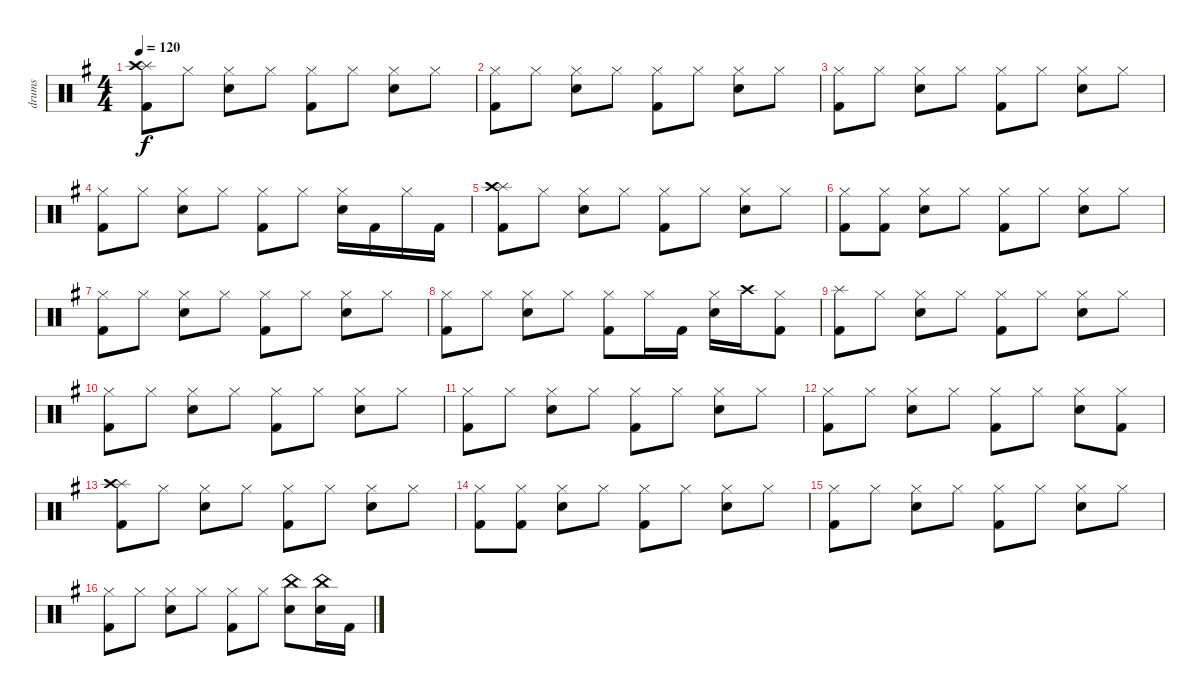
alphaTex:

\track ("drums" "drums") {instrument percussion}
\staff {score}
\articulation defaults
\ts (4 4)
\tempo 120
\clef neutral
\ks eminor
("Kick (hit) 2" "Splash (hit)" "Crash high (hit)").8{dy f} "Hi-Hat (closed)".8 ("Electric Snare (hit)" "Hi-Hat (closed)").8 "Hi-Hat (closed)".8 ("Kick (hit) 2" "Hi-Hat (closed)").8 "Hi-Hat (closed)".8 ("Electric Snare (hit)" "Hi-Hat (closed)").8 "Hi-Hat (closed)".8 |
("Kick (hit) 2" "Hi-Hat (closed)").8 "Hi-Hat (closed)".8 ("Electric Snare (hit)" "Hi-Hat (closed)").8 "Hi-Hat (closed)".8 ("Kick (hit) 2" "Hi-Hat (closed)").8 "Hi-Hat (closed)".8 ("Electric Snare (hit)" "Hi-Hat (closed)").8 "Hi-Hat (closed)".8 |
("Kick (hit) 2" "Hi-Hat (closed)").8 "Hi-Hat (closed)".8 ("Electric Snare (hit)" "Hi-Hat (closed)").8 "Hi-Hat (closed)".8 ("Kick (hit) 2" "Hi-Hat (closed)").8 "Hi-Hat (closed)".8 ("Electric Snare (hit)" "Hi-Hat (closed)").8 "Hi-Hat (closed)".8 |
("Kick (hit) 2" "Hi-Hat (closed)").8 "Hi-Hat (closed)".8 ("Electric Snare (hit)" "Hi-Hat (closed)").8 "Hi-Hat (closed)".8 ("Kick (hit) 2" "Hi-Hat (closed)").8 "Hi-Hat (closed)".8 ("Electric Snare (hit)" "Hi-Hat (closed)").16 "Kick (hit) 2".16 "Hi-Hat (closed)".16 "Kick (hit) 2".16 |
("Kick (hit) 2" "Splash (hit)" "Crash high (hit)").8 "Hi-Hat (closed)".8 ("Electric Snare (hit)" "Hi-Hat (closed)").8 "Hi-Hat (closed)".8 ("Kick (hit) 2" "Hi-Hat (closed)").8 "Hi-Hat (closed)".8 ("Electric Snare (hit)" "Hi-Hat (closed)").8 "Hi-Hat (closed)".8 |
("Kick (hit) 2" "Hi-Hat (closed)").8 ("Kick (hit) 2" "Hi-Hat (closed)").8 ("Electric Snare (hit)" "Hi-Hat (closed)").8 "Hi-Hat (closed)".8 ("Kick (hit) 2" "Hi-Hat (closed)").8 "Hi-Hat (closed)".8 ("Electric Snare (hit)" "Hi-Hat (closed)").8 "Hi-Hat (closed)".8 |
("Kick (hit) 2" "Hi-Hat (closed)").8 "Hi-Hat (closed)".8 ("Electric Snare (hit)" "Hi-Hat (closed)").8 "Hi-Hat (closed)".8 ("Kick (hit) 2" "Hi-Hat (closed)").8 "Hi-Hat (closed)".8 ("Electric Snare (hit)" "Hi-Hat (closed)").8 "Hi-Hat (closed)".8 |
("Kick (hit) 2" "Hi-Hat (closed)").8 "Hi-Hat (closed)".8 ("Electric Snare (hit)" "Hi-Hat (closed)").8 "Hi-Hat (closed)".8 ("Kick (hit) 2" "Hi-Hat (closed)").8 "Hi-Hat (closed)".16 "Kick (hit) 2".16 ("Electric Snare (hit)" "Hi-Hat (closed)").16 "Crash high (hit)".16 ("Kick (hit) 2" "Hi-Hat (closed)").8 |
("Kick (hit) 2" "Splash (hit)").8 "Hi-Hat (closed)".8 ("Electric Snare (hit)" "Hi-Hat (closed)").8 "Hi-Hat (closed)".8 ("Kick (hit) 2" "Hi-Hat (closed)").8 "Hi-Hat (closed)".8 ("Electric Snare (hit)" "Hi-Hat (closed)").8 "Hi-Hat (closed)".8 |
("Kick (hit) 2" "Hi-Hat (closed)").8 "Hi-Hat (closed)".8 ("Electric Snare (hit)" "Hi-Hat (closed)").8 "Hi-Hat (closed)".8 ("Kick (hit) 2" "Hi-Hat (closed)").8 "Hi-Hat (closed)".8 ("Electric Snare (hit)" "Hi-Hat (closed)").8 "Hi-Hat (closed)".8 |
("Kick (hit) 2" "Hi-Hat (closed)").8 "Hi-Hat (closed)".8 ("Electric Snare (hit)" "Hi-Hat (closed)").8 "Hi-Hat (closed)".8 ("Kick (hit) 2" "Hi-Hat (closed)").8 "Hi-Hat (closed)".8 ("Electric Snare (hit)" "Hi-Hat (closed)").8 "Hi-Hat (closed)".8 |
("Kick (hit) 2" "Hi-Hat (closed)").8 "Hi-Hat (closed)".8 ("Electric Snare (hit)" "Hi-Hat (closed)").8 "Hi-Hat (closed)".8 ("Kick (hit) 2" "Hi-Hat (closed)").8 "Hi-Hat (closed)".8 ("Electric Snare (hit)" "Hi-Hat (closed)").8 ("Kick (hit) 2" "Hi-Hat (closed)").8 |
("Kick (hit) 2" "Splash (hit)" "Crash high (hit)").8 "Hi-Hat (closed)".8 ("Electric Snare (hit)" "Hi-Hat (closed)").8 "Hi-Hat (closed)".8 ("Kick (hit) 2" "Hi-Hat (closed)").8 "Hi-Hat (closed)".8 ("Electric Snare (hit)" "Hi-Hat (closed)").8 "Hi-Hat (closed)".8 |
("Kick (hit) 2" "Hi-Hat (closed)").8 ("Kick (hit) 2" "Hi-Hat (closed)").8 ("Electric Snare (hit)" "Hi-Hat (closed)").8 "Hi-Hat (closed)".8 ("Kick (hit) 2" "Hi-Hat (closed)").8 "Hi-Hat (closed)".8 ("Electric Snare (hit)" "Hi-Hat (closed)").8 "Hi-Hat (closed)".8 |
("Kick (hit) 2" "Hi-Hat (closed)").8 "Hi-Hat (closed)".8 ("Electric Snare (hit)" "Hi-Hat (closed)").8 "Hi-Hat (closed)".8 ("Kick (hit) 2" "Hi-Hat (closed)").8 "Hi-Hat (closed)".8 ("Electric Snare (hit)" "Hi-Hat (closed)").8 "Hi-Hat (closed)".8 |
("Kick (hit) 2" "Hi-Hat (closed)").8 "Hi-Hat (closed)".8 ("Electric Snare (hit)" "Hi-Hat (closed)").8 "Hi-Hat (closed)".8 ("Kick (hit) 2" "Hi-Hat (closed)").8 "Hi-Hat (closed)".8 ("China (hit)" "Electric Snare (hit)").8 ("China (hit)" "Electric Snare (hit)").16 "Kick (hit) 2".16
